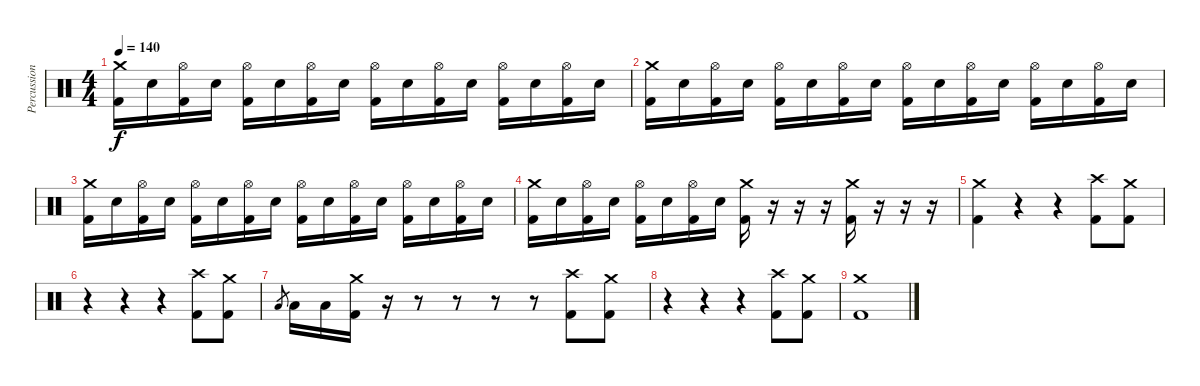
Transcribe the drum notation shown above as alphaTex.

\track ("Percussion" "Percussion") {instrument percussion}
\staff {score}
\articulation defaults
\ts (4 4)
\tempo 140
\clef neutral
\ks c
("Crash medium (hit)" "Kick (hit) 2").16{dy f} "Electric Snare (hit)".16 ("Hi-Hat (open)" "Kick (hit) 2").16 "Electric Snare (hit)".16 ("Hi-Hat (open)" "Kick (hit) 2").16 "Electric Snare (hit)".16 ("Hi-Hat (open)" "Kick (hit) 2").16 "Electric Snare (hit)".16 ("Hi-Hat (open)" "Kick (hit) 2").16 "Electric Snare (hit)".16 ("Hi-Hat (open)" "Kick (hit) 2").16 "Electric Snare (hit)".16 ("Hi-Hat (open)" "Kick (hit) 2").16 "Electric Snare (hit)".16 ("Hi-Hat (open)" "Kick (hit) 2").16 "Electric Snare (hit)".16 |
("Crash medium (hit)" "Kick (hit) 2").16 "Electric Snare (hit)".16 ("Hi-Hat (open)" "Kick (hit) 2").16 "Electric Snare (hit)".16 ("Hi-Hat (open)" "Kick (hit) 2").16 "Electric Snare (hit)".16 ("Hi-Hat (open)" "Kick (hit) 2").16 "Electric Snare (hit)".16 ("Hi-Hat (open)" "Kick (hit) 2").16 "Electric Snare (hit)".16 ("Hi-Hat (open)" "Kick (hit) 2").16 "Electric Snare (hit)".16 ("Hi-Hat (open)" "Kick (hit) 2").16 "Electric Snare (hit)".16 ("Hi-Hat (open)" "Kick (hit) 2").16 "Electric Snare (hit)".16 |
("Crash medium (hit)" "Kick (hit) 2").16 "Electric Snare (hit)".16 ("Hi-Hat (open)" "Kick (hit) 2").16 "Electric Snare (hit)".16 ("Hi-Hat (open)" "Kick (hit) 2").16 "Electric Snare (hit)".16 ("Hi-Hat (open)" "Kick (hit) 2").16 "Electric Snare (hit)".16 ("Hi-Hat (open)" "Kick (hit) 2").16 "Electric Snare (hit)".16 ("Hi-Hat (open)" "Kick (hit) 2").16 "Electric Snare (hit)".16 ("Hi-Hat (open)" "Kick (hit) 2").16 "Electric Snare (hit)".16 ("Hi-Hat (open)" "Kick (hit) 2").16 "Electric Snare (hit)".16 |
("Crash medium (hit)" "Kick (hit) 2").16 "Electric Snare (hit)".16 ("Hi-Hat (open)" "Kick (hit) 2").16 "Electric Snare (hit)".16 ("Hi-Hat (open)" "Kick (hit) 2").16 "Electric Snare (hit)".16 ("Hi-Hat (open)" "Kick (hit) 2").16 "Electric Snare (hit)".16 ("Crash medium (hit)" "Kick (hit) 2").16 r.16 r.16 r.16 ("Crash medium (hit)" "Kick (hit) 2").16 r.16 r.16 r.16 |
("Crash medium (hit)" "Kick (hit) 2").4 r.4 r.4 ("Crash high (hit)" "Kick (hit) 2").8 ("Crash medium (hit)" "Kick (hit) 2").8 |
r.4 r.4 r.4 ("Crash high (hit)" "Kick (hit) 2").8 ("Crash medium (hit)" "Kick (hit) 2").8 |
"Low Floor Tom (hit)".8{gr} "Low Floor Tom (hit)".16 "Low Floor Tom (hit)".16 ("Crash medium (hit)" "Kick (hit) 2").16 r.16 r.8 r.8 r.8 r.8 ("Crash high (hit)" "Kick (hit) 2").8 ("Crash medium (hit)" "Kick (hit) 2").8 |
r.4 r.4 r.4 ("Crash high (hit)" "Kick (hit) 2").8 ("Crash medium (hit)" "Kick (hit) 2").8 |
("Crash medium (hit)" "Kick (hit) 2").1
